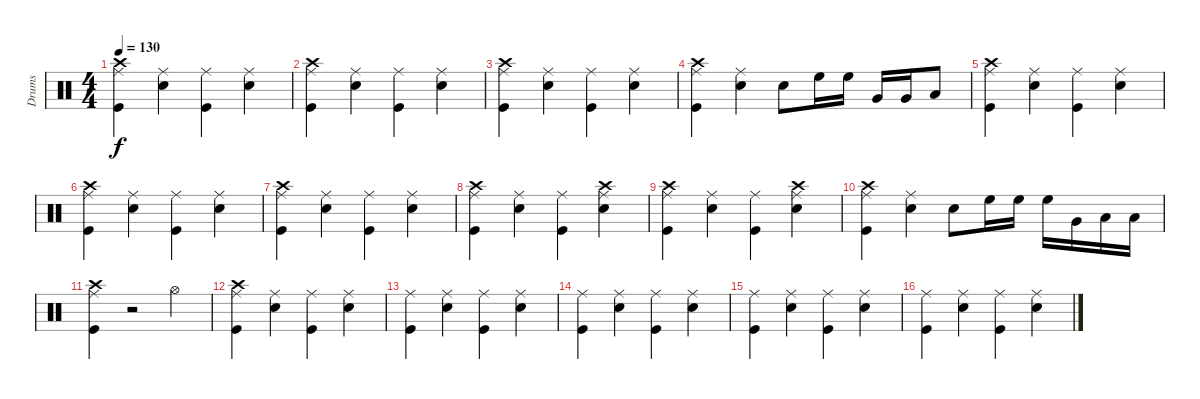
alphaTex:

\track ("Drums" "Drums") {instrument percussion}
\staff {score}
\articulation defaults
\ts (4 4)
\tempo 130
\clef neutral
\ks c
("Kick (hit)" "Crash high (hit)" "Ride (middle)").4{dy f} ("Snare (hit) 2" "Ride (middle)").4 ("Kick (hit)" "Ride (middle)").4 ("Snare (hit) 2" "Ride (middle)").4 |
("Kick (hit)" "Crash high (hit)" "Ride (middle)").4 ("Snare (hit) 2" "Ride (middle)").4 ("Kick (hit)" "Ride (middle)").4 ("Snare (hit) 2" "Ride (middle)").4 |
("Kick (hit)" "Crash high (hit)" "Ride (middle)").4 ("Snare (hit) 2" "Ride (middle)").4 ("Kick (hit)" "Ride (middle)").4 ("Snare (hit) 2" "Ride (middle)").4 |
("Kick (hit)" "Crash high (hit)" "Ride (middle)").4 ("Snare (hit) 2" "Ride (middle)").4 "Snare (hit) 2".8 "High Floor Tom (hit)".16 "High Floor Tom (hit)".16 "Very Low Tom (hit)".16 "Very Low Tom (hit)".16 "Low Tom (hit)".8 |
("Kick (hit)" "Crash high (hit)" "Ride (middle)").4 ("Snare (hit) 2" "Ride (middle)").4 ("Kick (hit)" "Ride (middle)").4 ("Snare (hit) 2" "Ride (middle)").4 |
("Kick (hit)" "Crash high (hit)" "Ride (middle)").4 ("Snare (hit) 2" "Ride (middle)").4 ("Kick (hit)" "Ride (middle)").4 ("Snare (hit) 2" "Ride (middle)").4 |
("Kick (hit)" "Crash high (hit)" "Ride (middle)").4 ("Snare (hit) 2" "Ride (middle)").4 ("Kick (hit)" "Ride (middle)").4 ("Snare (hit) 2" "Ride (middle)").4 |
("Kick (hit)" "Crash high (hit)" "Ride (middle)").4 ("Snare (hit) 2" "Ride (middle)").4 ("Kick (hit)" "Ride (middle)").4 ("Snare (hit) 2" "Crash high (hit)" "Ride (middle)").4 |
("Kick (hit)" "Crash high (hit)" "Ride (middle)").4 ("Snare (hit) 2" "Ride (middle)").4 ("Kick (hit)" "Ride (middle)").4 ("Snare (hit) 2" "Crash high (hit)" "Ride (middle)").4 |
("Kick (hit)" "Crash high (hit)" "Ride (middle)").4 ("Snare (hit) 2" "Ride (middle)").4 "Snare (hit) 2".8 "High Floor Tom (hit)".16 "High Floor Tom (hit)".16 "High Floor Tom (hit)".16 "Very Low Tom (hit)".16 "Low Tom (hit)".16 "Low Tom (hit)".16 |
("Kick (hit)" "Crash high (hit)" "Ride (middle)").4 r.2 "Hi-Hat (open)".4 |
("Kick (hit)" "Crash high (hit)" "Ride (middle)").4 ("Snare (hit) 2" "Ride (middle)").4 ("Kick (hit)" "Ride (middle)").4 ("Snare (hit) 2" "Ride (middle)").4 |
("Kick (hit)" "Ride (middle)").4 ("Snare (hit) 2" "Ride (middle)").4 ("Kick (hit)" "Ride (middle)").4 ("Snare (hit) 2" "Ride (middle)").4 |
("Kick (hit)" "Ride (middle)").4 ("Snare (hit) 2" "Ride (middle)").4 ("Kick (hit)" "Ride (middle)").4 ("Snare (hit) 2" "Ride (middle)").4 |
("Kick (hit)" "Ride (middle)").4 ("Snare (hit) 2" "Ride (middle)").4 ("Kick (hit)" "Ride (middle)").4 ("Snare (hit) 2" "Ride (middle)").4 |
("Kick (hit)" "Ride (middle)").4 ("Snare (hit) 2" "Ride (middle)").4 ("Kick (hit)" "Ride (middle)").4 ("Snare (hit) 2" "Ride (middle)").4
